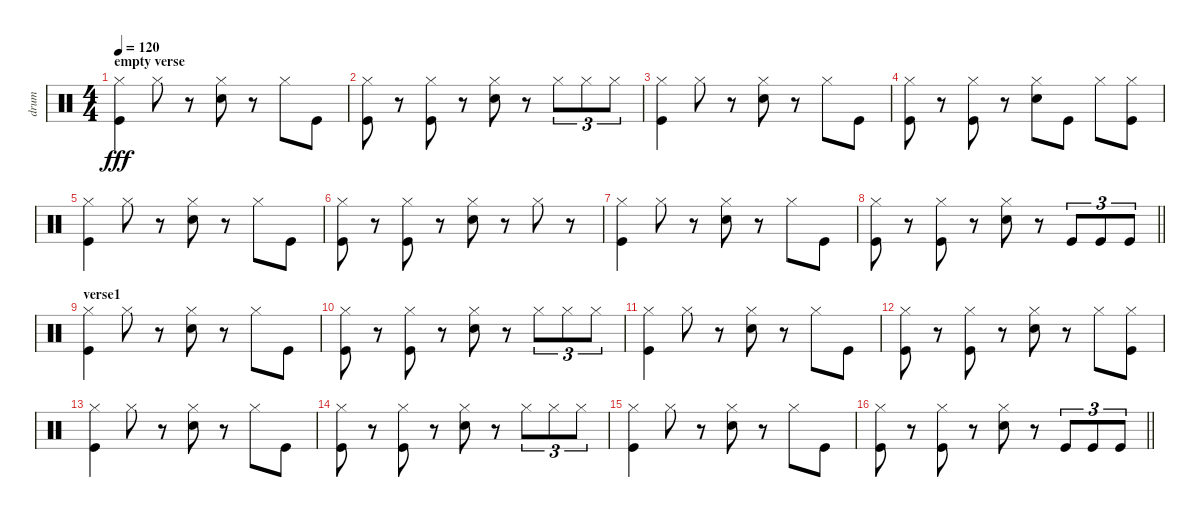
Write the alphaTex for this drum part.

\track ("drum" "drum") {instrument percussion}
\staff {score}
\articulation defaults
\ts (4 4)
\section ("" "empty verse")
\tempo 120
\clef neutral
\ks c
("Hi-Hat (closed)" "Kick (hit)").4{dy fff} "Hi-Hat (closed)".8 r.8 ("Hi-Hat (closed)" "Hand Clap (hit)").8 r.8 "Hi-Hat (closed)".8 "Kick (hit)".8 |
("Hi-Hat (closed)" "Kick (hit)").8 r.8 ("Hi-Hat (closed)" "Kick (hit)").8 r.8 ("Hi-Hat (closed)" "Hand Clap (hit)").8 r.8 "Hi-Hat (closed)".8{tu (3 2)} "Hi-Hat (closed)".8{tu (3 2)} "Hi-Hat (closed)".8{tu (3 2)} |
("Hi-Hat (closed)" "Kick (hit)").4 "Hi-Hat (closed)".8 r.8 ("Hi-Hat (closed)" "Hand Clap (hit)").8 r.8 "Hi-Hat (closed)".8 "Kick (hit)".8 |
("Hi-Hat (closed)" "Kick (hit)").8 r.8 ("Hi-Hat (closed)" "Kick (hit)").8 r.8 ("Hi-Hat (closed)" "Hand Clap (hit)").8 "Kick (hit)".8 "Hi-Hat (closed)".8 ("Hi-Hat (closed)" "Kick (hit)").8 |
("Hi-Hat (closed)" "Kick (hit)").4 "Hi-Hat (closed)".8 r.8 ("Hi-Hat (closed)" "Hand Clap (hit)").8 r.8 "Hi-Hat (closed)".8 "Kick (hit)".8 |
("Hi-Hat (closed)" "Kick (hit)").8 r.8 ("Hi-Hat (closed)" "Kick (hit)").8 r.8 ("Hi-Hat (closed)" "Hand Clap (hit)").8 r.8 "Hi-Hat (closed)".8 r.8 |
("Hi-Hat (closed)" "Kick (hit)").4 "Hi-Hat (closed)".8 r.8 ("Hi-Hat (closed)" "Hand Clap (hit)").8 r.8 "Hi-Hat (closed)".8 "Kick (hit)".8 |
\barLineRight lightlight
("Hi-Hat (closed)" "Kick (hit)").8 r.8 ("Hi-Hat (closed)" "Kick (hit)").8 r.8 ("Hi-Hat (closed)" "Hand Clap (hit)").8 r.8 "Kick (hit)".8{tu (3 2)} "Kick (hit)".8{tu (3 2)} "Kick (hit)".8{tu (3 2)} |
\section ("" "verse1")
("Hi-Hat (closed)" "Kick (hit)").4 "Hi-Hat (closed)".8 r.8 ("Hi-Hat (closed)" "Hand Clap (hit)").8 r.8 "Hi-Hat (closed)".8 "Kick (hit)".8 |
("Hi-Hat (closed)" "Kick (hit)").8 r.8 ("Hi-Hat (closed)" "Kick (hit)").8 r.8 ("Hi-Hat (closed)" "Hand Clap (hit)").8 r.8 "Hi-Hat (closed)".8{tu (3 2)} "Hi-Hat (closed)".8{tu (3 2)} "Hi-Hat (closed)".8{tu (3 2)} |
("Hi-Hat (closed)" "Kick (hit)").4 "Hi-Hat (closed)".8 r.8 ("Hi-Hat (closed)" "Hand Clap (hit)").8 r.8 "Hi-Hat (closed)".8 "Kick (hit)".8 |
("Hi-Hat (closed)" "Kick (hit)").8 r.8 ("Hi-Hat (closed)" "Kick (hit)").8 r.8 ("Hi-Hat (closed)" "Hand Clap (hit)").8 r.8 "Hi-Hat (closed)".8 ("Hi-Hat (closed)" "Kick (hit)").8 |
("Hi-Hat (closed)" "Kick (hit)").4 "Hi-Hat (closed)".8 r.8 ("Hi-Hat (closed)" "Hand Clap (hit)").8 r.8 "Hi-Hat (closed)".8 "Kick (hit)".8 |
("Hi-Hat (closed)" "Kick (hit)").8 r.8 ("Hi-Hat (closed)" "Kick (hit)").8 r.8 ("Hi-Hat (closed)" "Hand Clap (hit)").8 r.8 "Hi-Hat (closed)".8{tu (3 2)} "Hi-Hat (closed)".8{tu (3 2)} "Hi-Hat (closed)".8{tu (3 2)} |
("Hi-Hat (closed)" "Kick (hit)").4 "Hi-Hat (closed)".8 r.8 ("Hi-Hat (closed)" "Hand Clap (hit)").8 r.8 "Hi-Hat (closed)".8 "Kick (hit)".8 |
\barLineRight lightlight
("Hi-Hat (closed)" "Kick (hit)").8 r.8 ("Hi-Hat (closed)" "Kick (hit)").8 r.8 ("Hi-Hat (closed)" "Hand Clap (hit)").8 r.8 "Kick (hit)".8{tu (3 2)} "Kick (hit)".8{tu (3 2)} "Kick (hit)".8{tu (3 2)}
